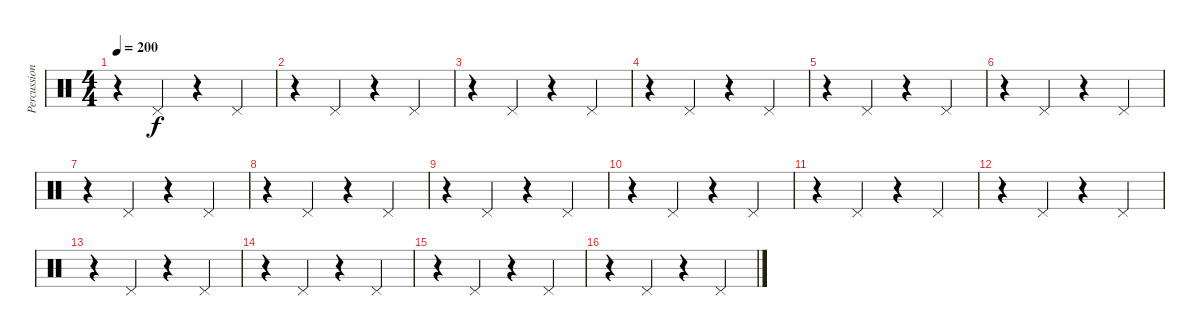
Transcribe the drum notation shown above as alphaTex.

\track ("Percussions" "Percussion") {instrument percussion}
\staff {score}
\articulation defaults
\ts (4 4)
\tempo 200
\clef neutral
\ks c
r.4{dy f} "Pedal Hi-Hat (hit)".4 r.4 "Pedal Hi-Hat (hit)".4 |
r.4 "Pedal Hi-Hat (hit)".4 r.4 "Pedal Hi-Hat (hit)".4 |
r.4 "Pedal Hi-Hat (hit)".4 r.4 "Pedal Hi-Hat (hit)".4 |
r.4 "Pedal Hi-Hat (hit)".4 r.4 "Pedal Hi-Hat (hit)".4 |
r.4 "Pedal Hi-Hat (hit)".4 r.4 "Pedal Hi-Hat (hit)".4 |
r.4 "Pedal Hi-Hat (hit)".4 r.4 "Pedal Hi-Hat (hit)".4 |
r.4 "Pedal Hi-Hat (hit)".4 r.4 "Pedal Hi-Hat (hit)".4 |
r.4 "Pedal Hi-Hat (hit)".4 r.4 "Pedal Hi-Hat (hit)".4 |
r.4 "Pedal Hi-Hat (hit)".4 r.4 "Pedal Hi-Hat (hit)".4 |
r.4 "Pedal Hi-Hat (hit)".4 r.4 "Pedal Hi-Hat (hit)".4 |
r.4 "Pedal Hi-Hat (hit)".4 r.4 "Pedal Hi-Hat (hit)".4 |
r.4 "Pedal Hi-Hat (hit)".4 r.4 "Pedal Hi-Hat (hit)".4 |
r.4 "Pedal Hi-Hat (hit)".4 r.4 "Pedal Hi-Hat (hit)".4 |
r.4 "Pedal Hi-Hat (hit)".4 r.4 "Pedal Hi-Hat (hit)".4 |
r.4 "Pedal Hi-Hat (hit)".4 r.4 "Pedal Hi-Hat (hit)".4 |
r.4 "Pedal Hi-Hat (hit)".4 r.4 "Pedal Hi-Hat (hit)".4
